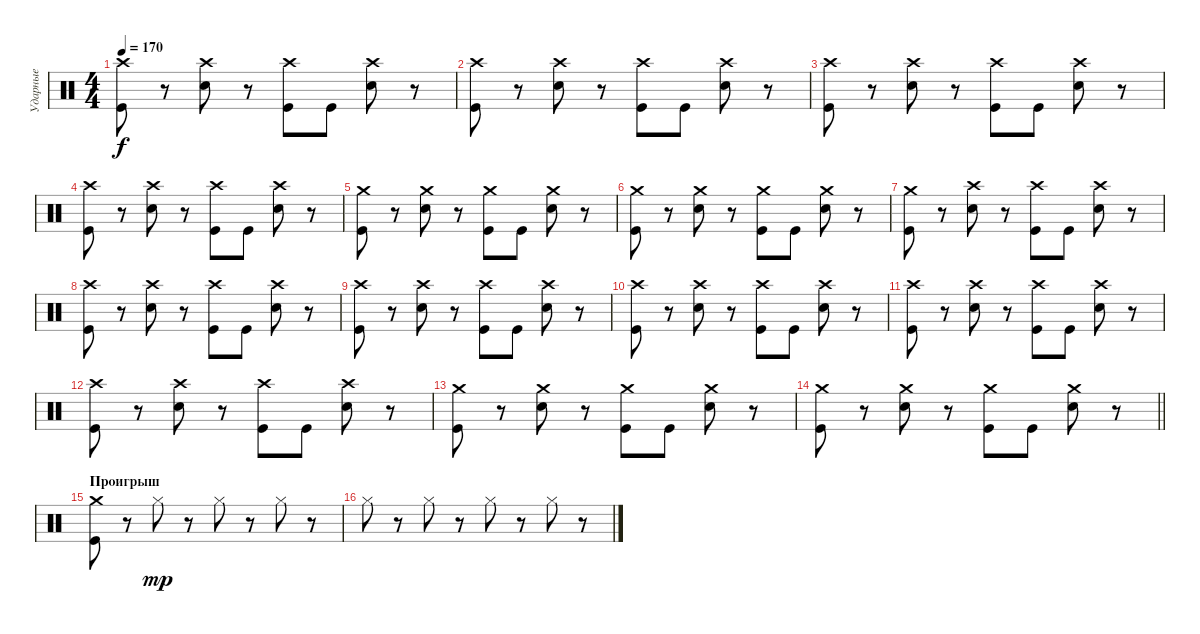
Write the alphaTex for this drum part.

\track ("Ударные" "Ударные") {instrument percussion}
\staff {score}
\articulation defaults
\ts (4 4)
\tempo 170
\clef neutral
\ks c
("Crash high (hit)" "Kick (hit)").8{dy f} r.8 ("Crash high (hit)" "Electric Snare (hit)").8 r.8 ("Crash high (hit)" "Kick (hit)").8 "Kick (hit)".8 ("Crash high (hit)" "Electric Snare (hit)").8 r.8 |
("Crash high (hit)" "Kick (hit)").8 r.8 ("Crash high (hit)" "Electric Snare (hit)").8 r.8 ("Crash high (hit)" "Kick (hit)").8 "Kick (hit)".8 ("Crash high (hit)" "Electric Snare (hit)").8 r.8 |
("Crash high (hit)" "Kick (hit)").8 r.8 ("Crash high (hit)" "Electric Snare (hit)").8 r.8 ("Crash high (hit)" "Kick (hit)").8 "Kick (hit)".8 ("Crash high (hit)" "Electric Snare (hit)").8 r.8 |
("Crash high (hit)" "Kick (hit)").8 r.8 ("Crash high (hit)" "Electric Snare (hit)").8 r.8 ("Crash high (hit)" "Kick (hit)").8 "Kick (hit)".8 ("Crash high (hit)" "Electric Snare (hit)").8 r.8 |
("Crash medium (hit)" "Kick (hit)").8 r.8 ("Crash medium (hit)" "Electric Snare (hit)").8 r.8 ("Crash medium (hit)" "Kick (hit)").8 "Kick (hit)".8 ("Crash medium (hit)" "Electric Snare (hit)").8 r.8 |
("Crash medium (hit)" "Kick (hit)").8 r.8 ("Crash medium (hit)" "Electric Snare (hit)").8 r.8 ("Crash medium (hit)" "Kick (hit)").8 "Kick (hit)".8 ("Crash medium (hit)" "Electric Snare (hit)").8 r.8 |
("Crash medium (hit)" "Kick (hit)").8 r.8 ("Crash high (hit)" "Electric Snare (hit)").8 r.8 ("Crash high (hit)" "Kick (hit)").8 "Kick (hit)".8 ("Crash high (hit)" "Electric Snare (hit)").8 r.8 |
("Crash high (hit)" "Kick (hit)").8 r.8 ("Crash high (hit)" "Electric Snare (hit)").8 r.8 ("Crash high (hit)" "Kick (hit)").8 "Kick (hit)".8 ("Crash high (hit)" "Electric Snare (hit)").8 r.8 |
("Crash high (hit)" "Kick (hit)").8 r.8 ("Crash high (hit)" "Electric Snare (hit)").8 r.8 ("Crash high (hit)" "Kick (hit)").8 "Kick (hit)".8 ("Crash high (hit)" "Electric Snare (hit)").8 r.8 |
("Crash high (hit)" "Kick (hit)").8 r.8 ("Crash high (hit)" "Electric Snare (hit)").8 r.8 ("Crash high (hit)" "Kick (hit)").8 "Kick (hit)".8 ("Crash high (hit)" "Electric Snare (hit)").8 r.8 |
("Crash high (hit)" "Kick (hit)").8 r.8 ("Crash high (hit)" "Electric Snare (hit)").8 r.8 ("Crash high (hit)" "Kick (hit)").8 "Kick (hit)".8 ("Crash high (hit)" "Electric Snare (hit)").8 r.8 |
("Crash high (hit)" "Kick (hit)").8 r.8 ("Crash high (hit)" "Electric Snare (hit)").8 r.8 ("Crash high (hit)" "Kick (hit)").8 "Kick (hit)".8 ("Crash high (hit)" "Electric Snare (hit)").8 r.8 |
("Crash medium (hit)" "Kick (hit)").8 r.8 ("Crash medium (hit)" "Electric Snare (hit)").8 r.8 ("Crash medium (hit)" "Kick (hit)").8 "Kick (hit)".8 ("Crash medium (hit)" "Electric Snare (hit)").8 r.8 |
\barLineRight lightlight
("Crash medium (hit)" "Kick (hit)").8 r.8 ("Crash medium (hit)" "Electric Snare (hit)").8 r.8 ("Crash medium (hit)" "Kick (hit)").8 "Kick (hit)".8 ("Crash medium (hit)" "Electric Snare (hit)").8 r.8 |
\section ("" "Проигрыш")
("Crash medium (hit)" "Kick (hit)").8 r.8 "Hi-Hat (closed)".8{dy mp} r.8 "Hi-Hat (closed)".8 r.8 "Hi-Hat (closed)".8 r.8 |
"Hi-Hat (closed)".8 r.8 "Hi-Hat (closed)".8 r.8 "Hi-Hat (closed)".8 r.8 "Hi-Hat (closed)".8 r.8
